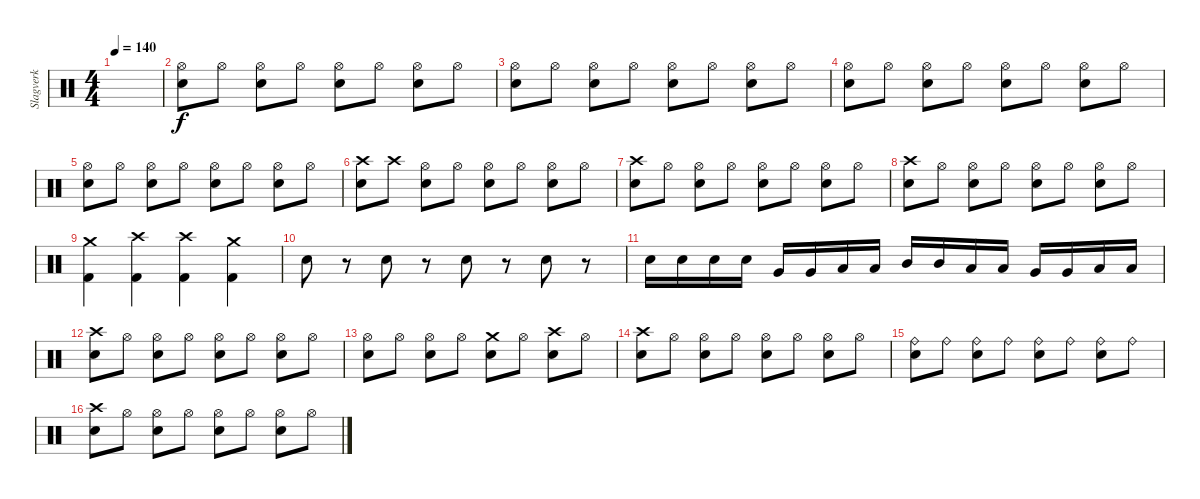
\track ("Slagverk" "Slagverk") {instrument percussion}
\staff {score}
\articulation defaults
\ts (4 4)
\tempo 140
\clef neutral
\ks c
|
("Hi-Hat (open)" "Snare (hit) 2").8 "Hi-Hat (open)".8 ("Hi-Hat (open)" "Snare (hit) 2").8 "Hi-Hat (open)".8 ("Hi-Hat (open)" "Snare (hit) 2").8 "Hi-Hat (open)".8 ("Hi-Hat (open)" "Snare (hit) 2").8 "Hi-Hat (open)".8 |
("Hi-Hat (open)" "Snare (hit) 2").8 "Hi-Hat (open)".8 ("Hi-Hat (open)" "Snare (hit) 2").8 "Hi-Hat (open)".8 ("Hi-Hat (open)" "Snare (hit) 2").8 "Hi-Hat (open)".8 ("Hi-Hat (open)" "Snare (hit) 2").8 "Hi-Hat (open)".8 |
("Hi-Hat (open)" "Snare (hit) 2").8 "Hi-Hat (open)".8 ("Hi-Hat (open)" "Snare (hit) 2").8 "Hi-Hat (open)".8 ("Hi-Hat (open)" "Snare (hit) 2").8 "Hi-Hat (open)".8 ("Hi-Hat (open)" "Snare (hit) 2").8 "Hi-Hat (open)".8 |
("Hi-Hat (open)" "Snare (hit) 2").8 "Hi-Hat (open)".8 ("Hi-Hat (open)" "Snare (hit) 2").8 "Hi-Hat (open)".8 ("Hi-Hat (open)" "Snare (hit) 2").8 "Hi-Hat (open)".8 ("Hi-Hat (open)" "Snare (hit) 2").8 "Hi-Hat (open)".8 |
("Crash high (hit)" "Snare (hit) 2").8 "Crash high (hit)".8 ("Hi-Hat (open)" "Snare (hit) 2").8 "Hi-Hat (open)".8 ("Hi-Hat (open)" "Snare (hit) 2").8 "Hi-Hat (open)".8 ("Hi-Hat (open)" "Snare (hit) 2").8 "Hi-Hat (open)".8 |
("Crash high (hit)" "Snare (hit) 2").8 "Hi-Hat (open)".8 ("Hi-Hat (open)" "Snare (hit) 2").8 "Hi-Hat (open)".8 ("Hi-Hat (open)" "Snare (hit) 2").8 "Hi-Hat (open)".8 ("Hi-Hat (open)" "Snare (hit) 2").8 "Hi-Hat (open)".8 |
("Crash high (hit)" "Snare (hit) 2").8 "Hi-Hat (open)".8 ("Hi-Hat (open)" "Snare (hit) 2").8 "Hi-Hat (open)".8 ("Hi-Hat (open)" "Snare (hit) 2").8 "Hi-Hat (open)".8 ("Hi-Hat (open)" "Snare (hit) 2").8 "Hi-Hat (open)".8 |
("Kick (hit) 2" "Crash medium (hit)").4 ("Kick (hit) 2" "Crash high (hit)").4 ("Kick (hit) 2" "Crash high (hit)").4 ("Kick (hit) 2" "Crash medium (hit)").4 |
"Snare (hit) 2".8 r.8 "Snare (hit) 2".8 r.8 "Snare (hit) 2".8 r.8 "Snare (hit) 2".8 r.8 |
"Snare (hit) 2".16 "Snare (hit) 2".16 "Snare (hit) 2".16 "Snare (hit) 2".16 "Very Low Tom (hit)".16 "Very Low Tom (hit)".16 "Low Tom (hit)".16 "Low Tom (hit)".16 "Mid Tom (hit)".16 "Mid Tom (hit)".16 "Low Tom (hit)".16 "Low Tom (hit)".16 "Very Low Tom (hit)".16 "Very Low Tom (hit)".16 "Low Floor Tom (hit)".16 "Low Floor Tom (hit)".16 |
("Crash high (hit)" "Snare (hit) 2").8 "Hi-Hat (open)".8 ("Hi-Hat (open)" "Snare (hit) 2").8 "Hi-Hat (open)".8 ("Hi-Hat (open)" "Snare (hit) 2").8 "Hi-Hat (open)".8 ("Hi-Hat (open)" "Snare (hit) 2").8 "Hi-Hat (open)".8 |
("Hi-Hat (open)" "Snare (hit) 2").8 "Hi-Hat (open)".8 ("Hi-Hat (open)" "Snare (hit) 2").8 "Hi-Hat (open)".8 ("Crash medium (hit)" "Snare (hit) 2").8 "Hi-Hat (open)".8 ("Crash high (hit)" "Snare (hit) 2").8 "Hi-Hat (open)".8 |
("Crash high (hit)" "Snare (hit) 2").8 "Hi-Hat (open)".8 ("Hi-Hat (open)" "Snare (hit) 2").8 "Hi-Hat (open)".8 ("Hi-Hat (open)" "Snare (hit) 2").8 "Hi-Hat (open)".8 ("Hi-Hat (open)" "Snare (hit) 2").8 "Hi-Hat (open)".8 |
("Ride (bell)" "Snare (hit) 2").8 "Ride (bell)".8 ("Ride (bell)" "Snare (hit) 2").8 "Ride (bell)".8 ("Ride (bell)" "Snare (hit) 2").8 "Ride (bell)".8 ("Ride (bell)" "Snare (hit) 2").8 "Ride (bell)".8 |
("Crash high (hit)" "Snare (hit) 2").8 "Hi-Hat (open)".8 ("Hi-Hat (open)" "Snare (hit) 2").8 "Hi-Hat (open)".8 ("Hi-Hat (open)" "Snare (hit) 2").8 "Hi-Hat (open)".8 ("Hi-Hat (open)" "Snare (hit) 2").8 "Hi-Hat (open)".8
